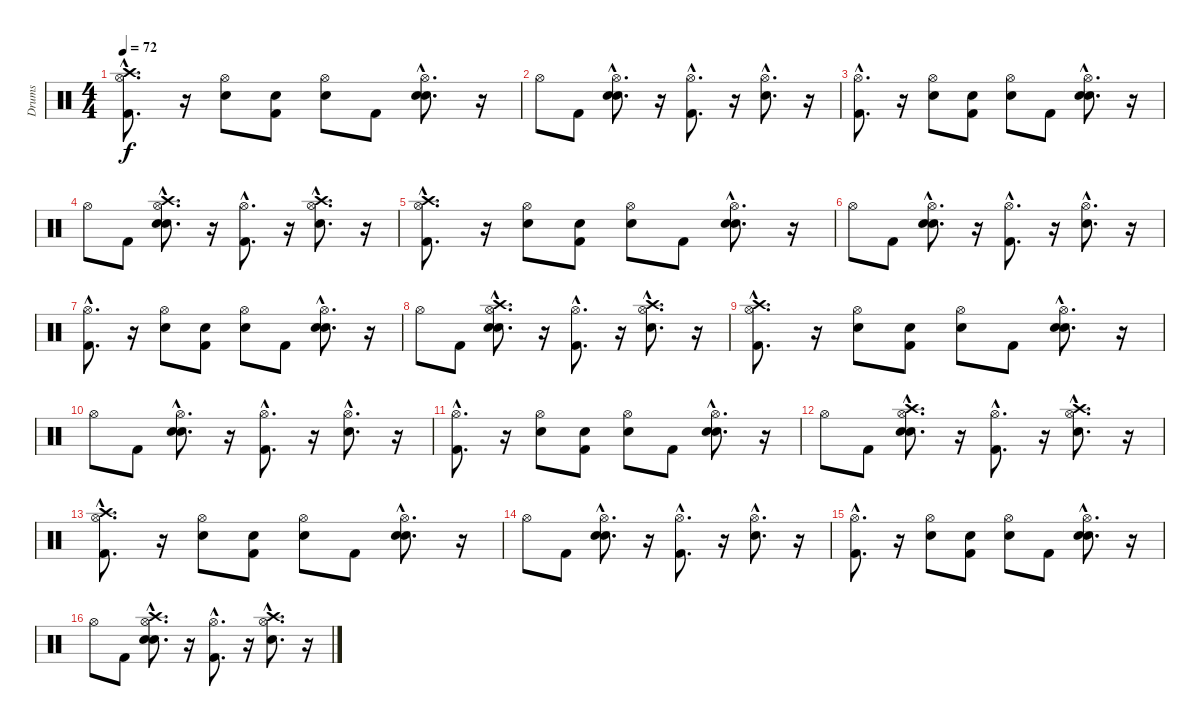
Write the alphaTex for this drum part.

\track ("Drums" "Drums") {instrument percussion}
\staff {score}
\articulation defaults
\ts (4 4)
\tempo 72
\clef neutral
\ks c
("Kick (hit) 2"{hac} "Hi-Hat (open)"{hac} "Crash high (hit)"{hac}).8{d dy f} r.16 ("Snare (hit) 2" "Hi-Hat (open)").8 ("Snare (hit)" "Kick (hit) 2").8 ("Snare (hit)" "Hi-Hat (open)").8 "Kick (hit) 2".8 ("Snare (hit)"{hac} "Snare (hit) 2"{hac} "Hi-Hat (open)"{hac}).8{d} r.16 |
"Hi-Hat (open)".8 "Kick (hit) 2".8 ("Snare (hit)"{hac} "Snare (hit) 2"{hac} "Hi-Hat (open)"{hac}).8{d} r.16 ("Kick (hit) 2"{hac} "Hi-Hat (open)"{hac}).8{d} r.16 ("Snare (hit) 2"{hac} "Hi-Hat (open)"{hac}).8{d} r.16 |
("Kick (hit) 2"{hac} "Hi-Hat (open)"{hac}).8{d} r.16 ("Snare (hit) 2" "Hi-Hat (open)").8 ("Snare (hit)" "Kick (hit) 2").8 ("Snare (hit)" "Hi-Hat (open)").8 "Kick (hit) 2".8 ("Snare (hit)"{hac} "Snare (hit) 2"{hac} "Hi-Hat (open)"{hac}).8{d} r.16 |
"Hi-Hat (open)".8 "Kick (hit) 2".8 ("Snare (hit)"{hac} "Snare (hit) 2"{hac} "Hi-Hat (open)"{hac} "Crash high (hit)"{hac}).8{d} r.16 ("Kick (hit) 2"{hac} "Hi-Hat (open)"{hac}).8{d} r.16 ("Snare (hit) 2"{hac} "Hi-Hat (open)"{hac} "Crash high (hit)"{hac}).8{d} r.16 |
("Kick (hit) 2"{hac} "Hi-Hat (open)"{hac} "Crash high (hit)"{hac}).8{d} r.16 ("Snare (hit) 2" "Hi-Hat (open)").8 ("Snare (hit)" "Kick (hit) 2").8 ("Snare (hit)" "Hi-Hat (open)").8 "Kick (hit) 2".8 ("Snare (hit)"{hac} "Snare (hit) 2"{hac} "Hi-Hat (open)"{hac}).8{d} r.16 |
"Hi-Hat (open)".8 "Kick (hit) 2".8 ("Snare (hit)"{hac} "Snare (hit) 2"{hac} "Hi-Hat (open)"{hac}).8{d} r.16 ("Kick (hit) 2"{hac} "Hi-Hat (open)"{hac}).8{d} r.16 ("Snare (hit) 2"{hac} "Hi-Hat (open)"{hac}).8{d} r.16 |
("Kick (hit) 2"{hac} "Hi-Hat (open)"{hac}).8{d} r.16 ("Snare (hit) 2" "Hi-Hat (open)").8 ("Snare (hit)" "Kick (hit) 2").8 ("Snare (hit)" "Hi-Hat (open)").8 "Kick (hit) 2".8 ("Snare (hit)"{hac} "Snare (hit) 2"{hac} "Hi-Hat (open)"{hac}).8{d} r.16 |
"Hi-Hat (open)".8 "Kick (hit) 2".8 ("Snare (hit)"{hac} "Snare (hit) 2"{hac} "Hi-Hat (open)"{hac} "Crash high (hit)"{hac}).8{d} r.16 ("Kick (hit) 2"{hac} "Hi-Hat (open)"{hac}).8{d} r.16 ("Snare (hit) 2"{hac} "Hi-Hat (open)"{hac} "Crash high (hit)"{hac}).8{d} r.16 |
("Kick (hit) 2"{hac} "Hi-Hat (open)"{hac} "Crash high (hit)"{hac}).8{d} r.16 ("Snare (hit) 2" "Hi-Hat (open)").8 ("Snare (hit)" "Kick (hit) 2").8 ("Snare (hit)" "Hi-Hat (open)").8 "Kick (hit) 2".8 ("Snare (hit)"{hac} "Snare (hit) 2"{hac} "Hi-Hat (open)"{hac}).8{d} r.16 |
"Hi-Hat (open)".8 "Kick (hit) 2".8 ("Snare (hit)"{hac} "Snare (hit) 2"{hac} "Hi-Hat (open)"{hac}).8{d} r.16 ("Kick (hit) 2"{hac} "Hi-Hat (open)"{hac}).8{d} r.16 ("Snare (hit) 2"{hac} "Hi-Hat (open)"{hac}).8{d} r.16 |
("Kick (hit) 2"{hac} "Hi-Hat (open)"{hac}).8{d} r.16 ("Snare (hit) 2" "Hi-Hat (open)").8 ("Snare (hit)" "Kick (hit) 2").8 ("Snare (hit)" "Hi-Hat (open)").8 "Kick (hit) 2".8 ("Snare (hit)"{hac} "Snare (hit) 2"{hac} "Hi-Hat (open)"{hac}).8{d} r.16 |
"Hi-Hat (open)".8 "Kick (hit) 2".8 ("Snare (hit)"{hac} "Snare (hit) 2"{hac} "Hi-Hat (open)"{hac} "Crash high (hit)"{hac}).8{d} r.16 ("Kick (hit) 2"{hac} "Hi-Hat (open)"{hac}).8{d} r.16 ("Snare (hit) 2"{hac} "Hi-Hat (open)"{hac} "Crash high (hit)"{hac}).8{d} r.16 |
("Kick (hit) 2"{hac} "Hi-Hat (open)"{hac} "Crash high (hit)"{hac}).8{d} r.16 ("Snare (hit) 2" "Hi-Hat (open)").8 ("Snare (hit)" "Kick (hit) 2").8 ("Snare (hit)" "Hi-Hat (open)").8 "Kick (hit) 2".8 ("Snare (hit)"{hac} "Snare (hit) 2"{hac} "Hi-Hat (open)"{hac}).8{d} r.16 |
"Hi-Hat (open)".8 "Kick (hit) 2".8 ("Snare (hit)"{hac} "Snare (hit) 2"{hac} "Hi-Hat (open)"{hac}).8{d} r.16 ("Kick (hit) 2"{hac} "Hi-Hat (open)"{hac}).8{d} r.16 ("Snare (hit) 2"{hac} "Hi-Hat (open)"{hac}).8{d} r.16 |
("Kick (hit) 2"{hac} "Hi-Hat (open)"{hac}).8{d} r.16 ("Snare (hit) 2" "Hi-Hat (open)").8 ("Snare (hit)" "Kick (hit) 2").8 ("Snare (hit)" "Hi-Hat (open)").8 "Kick (hit) 2".8 ("Snare (hit)"{hac} "Snare (hit) 2"{hac} "Hi-Hat (open)"{hac}).8{d} r.16 |
"Hi-Hat (open)".8 "Kick (hit) 2".8 ("Snare (hit)"{hac} "Snare (hit) 2"{hac} "Hi-Hat (open)"{hac} "Crash high (hit)"{hac}).8{d} r.16 ("Kick (hit) 2"{hac} "Hi-Hat (open)"{hac}).8{d} r.16 ("Snare (hit) 2"{hac} "Hi-Hat (open)"{hac} "Crash high (hit)"{hac}).8{d} r.16
